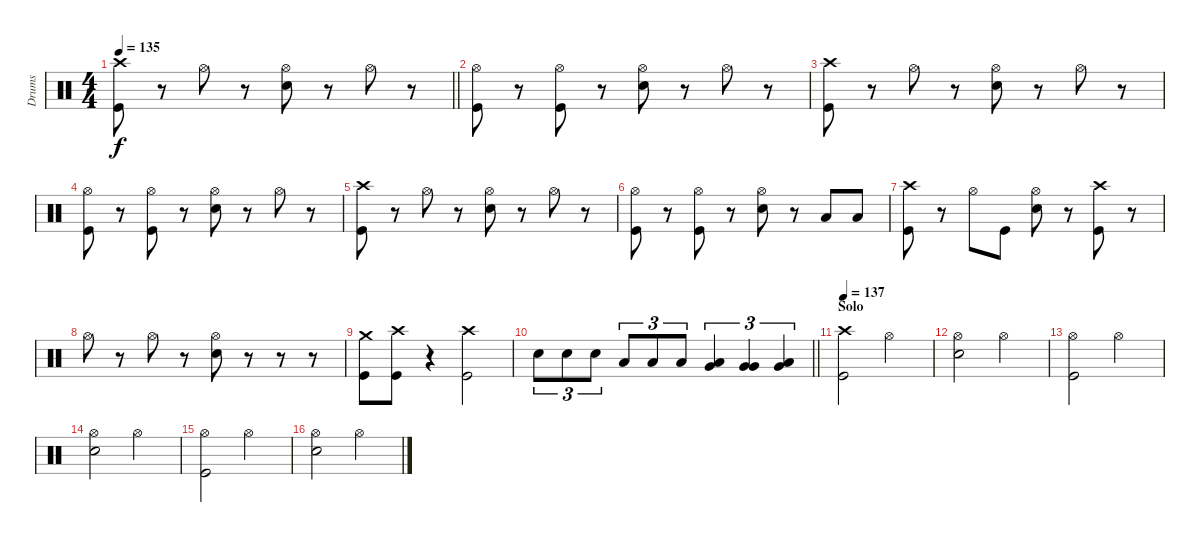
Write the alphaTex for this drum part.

\track ("Drums" "Drums") {instrument percussion}
\staff {score}
\articulation defaults
\ts (4 4)
\tempo 135
\clef neutral
\barLineRight lightlight
\ks c
("Crash high (hit)" "Kick (hit)").8{dy f} r.8 "Hi-Hat (open)".8 r.8 ("Hi-Hat (open)" "Snare (hit) 2").8 r.8 "Hi-Hat (open)".8 r.8 |
("Hi-Hat (open)" "Kick (hit)").8 r.8 ("Hi-Hat (open)" "Kick (hit)").8 r.8 ("Hi-Hat (open)" "Snare (hit) 2").8 r.8 "Hi-Hat (open)".8 r.8 |
("Crash high (hit)" "Kick (hit)").8 r.8 "Hi-Hat (open)".8 r.8 ("Hi-Hat (open)" "Snare (hit) 2").8 r.8 "Hi-Hat (open)".8 r.8 |
("Hi-Hat (open)" "Kick (hit)").8 r.8 ("Hi-Hat (open)" "Kick (hit)").8 r.8 ("Hi-Hat (open)" "Snare (hit) 2").8 r.8 "Hi-Hat (open)".8 r.8 |
("Crash high (hit)" "Kick (hit)").8 r.8 "Hi-Hat (open)".8 r.8 ("Hi-Hat (open)" "Snare (hit) 2").8 r.8 "Hi-Hat (open)".8 r.8 |
("Hi-Hat (open)" "Kick (hit)").8 r.8 ("Hi-Hat (open)" "Kick (hit)").8 r.8 ("Hi-Hat (open)" "Snare (hit) 2").8 r.8 "Low Tom (hit)".8 "Low Tom (hit)".8 |
("Crash high (hit)" "Kick (hit)").8 r.8 "Hi-Hat (open)".8 "Kick (hit)".8 ("Hi-Hat (open)" "Snare (hit) 2").8 r.8 ("Crash high (hit)" "Kick (hit)").8 r.8 |
"Hi-Hat (open)".8 r.8 "Hi-Hat (open)".8 r.8 ("Hi-Hat (open)" "Snare (hit) 2").8 r.8 r.8 r.8 |
("Crash medium (hit)" "Kick (hit)").8 ("Crash high (hit)" "Kick (hit)").8 r.4 ("Crash high (hit)" "Kick (hit)").2 |
\barLineRight lightlight "Snare (hit) 2".8{tu (3 2)} "Snare (hit) 2".8{tu (3 2)} "Snare (hit) 2".8{tu (3 2)} "Low Tom (hit)".8{tu (3 2)} "Low Tom (hit)".8{tu (3 2)} "Low Tom (hit)".8{tu (3 2)}
("Very Low Tom (hit)" "Low Tom (hit)").4{tu (3 2)} ("Very Low Tom (hit)" "Very Low Tom (hit)").4{tu (3 2)} ("Low Floor Tom (hit)" "Very Low Tom (hit)").4{tu (3 2)} |
\section ("" "Solo")
\tempo 137
("Crash high (hit)" "Kick (hit)").2 "Hi-Hat (open)".2 |
("Hi-Hat (open)" "Snare (hit) 2").2 "Hi-Hat (open)".2 |
("Hi-Hat (open)" "Kick (hit)").2 "Hi-Hat (open)".2 |
("Hi-Hat (open)" "Snare (hit) 2").2 "Hi-Hat (open)".2 |
("Hi-Hat (open)" "Kick (hit)").2 "Hi-Hat (open)".2 |
("Hi-Hat (open)" "Snare (hit) 2").2 "Hi-Hat (open)".2
